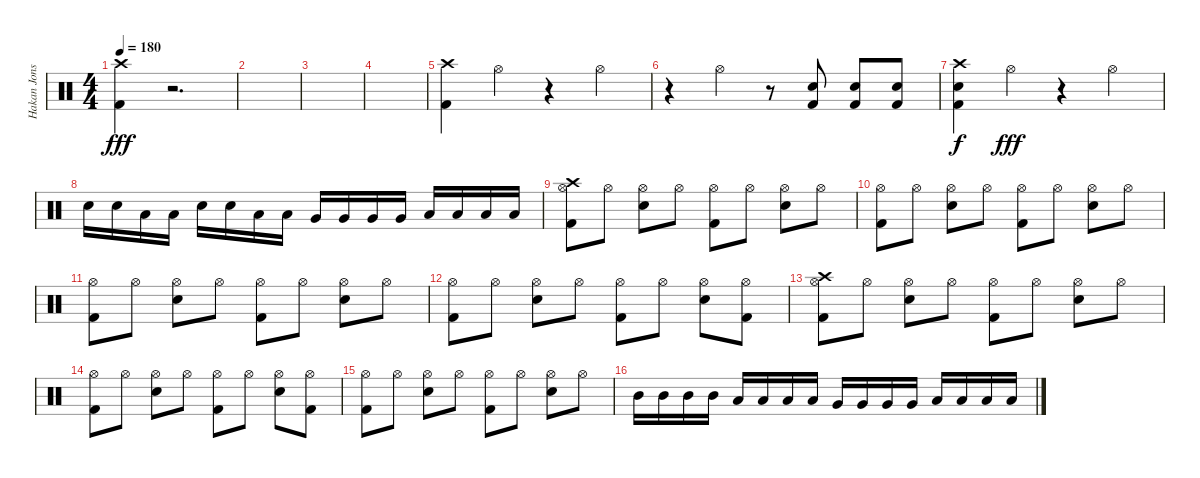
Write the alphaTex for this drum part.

\track ("Hakan Jonsson" "Hakan Jons") {instrument percussion}
\staff {score}
\articulation defaults
\ts (4 4)
\tempo 180
\clef neutral
\ks c
("Crash high (hit)" "Kick (hit) 2").4{dy fff} r.2{d} |
|
|
|
("Crash high (hit)" "Kick (hit) 2").4 "Hi-Hat (open)".4 r.4 "Hi-Hat (open)".4 |
r.4 "Hi-Hat (open)".4 r.8 ("Electric Snare (hit)" "Kick (hit) 2").8 ("Electric Snare (hit)" "Kick (hit) 2").8 ("Electric Snare (hit)" "Kick (hit) 2").8 |
("Crash high (hit)" "Electric Snare (hit)" "Kick (hit) 2").4{dy f} "Hi-Hat (open)".4{dy fff} r.4 "Hi-Hat (open)".4 |
"Electric Snare (hit)".16 "Electric Snare (hit)".16 "Low Tom (hit)".16 "Low Tom (hit)".16 "Electric Snare (hit)".16 "Electric Snare (hit)".16 "Low Tom (hit)".16 "Low Tom (hit)".16 "Very Low Tom (hit)".16 "Very Low Tom (hit)".16 "Very Low Tom (hit)".16 "Very Low Tom (hit)".16 "Low Floor Tom (hit)".16 "Low Floor Tom (hit)".16 "Low Floor Tom (hit)".16 "Low Floor Tom (hit)".16 |
("Crash high (hit)" "Hi-Hat (open)" "Kick (hit) 2").8 "Hi-Hat (open)".8 ("Hi-Hat (open)" "Electric Snare (hit)").8 "Hi-Hat (open)".8 ("Hi-Hat (open)" "Kick (hit) 2").8 "Hi-Hat (open)".8 ("Hi-Hat (open)" "Electric Snare (hit)").8 "Hi-Hat (open)".8 |
("Hi-Hat (open)" "Kick (hit) 2").8 "Hi-Hat (open)".8 ("Hi-Hat (open)" "Electric Snare (hit)").8 "Hi-Hat (open)".8 ("Hi-Hat (open)" "Kick (hit) 2").8 "Hi-Hat (open)".8 ("Hi-Hat (open)" "Electric Snare (hit)").8 "Hi-Hat (open)".8 |
("Hi-Hat (open)" "Kick (hit) 2").8 "Hi-Hat (open)".8 ("Hi-Hat (open)" "Electric Snare (hit)").8 "Hi-Hat (open)".8 ("Hi-Hat (open)" "Kick (hit) 2").8 "Hi-Hat (open)".8 ("Hi-Hat (open)" "Electric Snare (hit)").8 "Hi-Hat (open)".8 |
("Hi-Hat (open)" "Kick (hit) 2").8 "Hi-Hat (open)".8 ("Hi-Hat (open)" "Electric Snare (hit)").8 "Hi-Hat (open)".8 ("Hi-Hat (open)" "Kick (hit) 2").8 "Hi-Hat (open)".8 ("Hi-Hat (open)" "Electric Snare (hit)").8 ("Hi-Hat (open)" "Kick (hit) 2").8 |
("Crash high (hit)" "Hi-Hat (open)" "Kick (hit) 2").8 "Hi-Hat (open)".8 ("Hi-Hat (open)" "Electric Snare (hit)").8 "Hi-Hat (open)".8 ("Hi-Hat (open)" "Kick (hit) 2").8 "Hi-Hat (open)".8 ("Hi-Hat (open)" "Electric Snare (hit)").8 "Hi-Hat (open)".8 |
("Hi-Hat (open)" "Kick (hit) 2").8 "Hi-Hat (open)".8 ("Hi-Hat (open)" "Electric Snare (hit)").8 "Hi-Hat (open)".8 ("Hi-Hat (open)" "Kick (hit) 2").8 "Hi-Hat (open)".8 ("Hi-Hat (open)" "Electric Snare (hit)").8 ("Hi-Hat (open)" "Kick (hit) 2").8 |
("Hi-Hat (open)" "Kick (hit) 2").8 "Hi-Hat (open)".8 ("Hi-Hat (open)" "Electric Snare (hit)").8 "Hi-Hat (open)".8 ("Hi-Hat (open)" "Kick (hit) 2").8 "Hi-Hat (open)".8 ("Hi-Hat (open)" "Electric Snare (hit)").8 "Hi-Hat (open)".8 |
"Mid Tom (hit)".16 "Mid Tom (hit)".16 "Mid Tom (hit)".16 "Mid Tom (hit)".16 "Low Tom (hit)".16 "Low Tom (hit)".16 "Low Tom (hit)".16 "Low Tom (hit)".16 "Very Low Tom (hit)".16 "Very Low Tom (hit)".16 "Very Low Tom (hit)".16 "Very Low Tom (hit)".16 "Low Floor Tom (hit)".16 "Low Floor Tom (hit)".16 "Low Floor Tom (hit)".16 "Low Floor Tom (hit)".16
